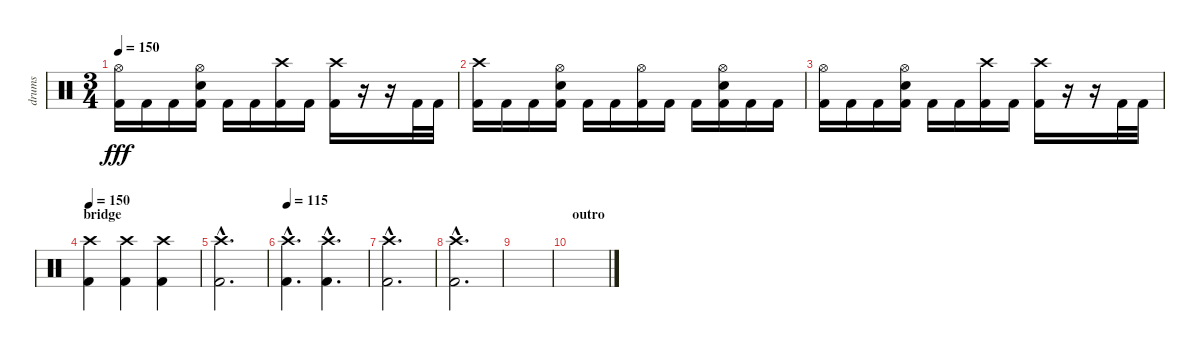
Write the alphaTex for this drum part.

\track ("drums" "drums") {instrument percussion}
\staff {score}
\articulation defaults
\ts (3 4)
\tempo 150
\clef neutral
\ks c
("Hi-Hat (open)" "Kick (hit) 2").16{dy fff} "Kick (hit) 2".16 "Kick (hit) 2".16 ("Hi-Hat (open)" "Snare (hit) 2" "Kick (hit) 2").16 "Kick (hit) 2".16 "Kick (hit) 2".16 ("Crash high (hit)" "Kick (hit) 2").16 "Kick (hit) 2".16 ("Crash high (hit)" "Kick (hit) 2").16 r.16 r.16 "Kick (hit) 2".32 "Kick (hit) 2".32 |
("Crash high (hit)" "Kick (hit) 2").16 "Kick (hit) 2".16 "Kick (hit) 2".16 ("Hi-Hat (open)" "Snare (hit) 2" "Kick (hit) 2").16 "Kick (hit) 2".16 "Kick (hit) 2".16 ("Hi-Hat (open)" "Kick (hit) 2").16 "Kick (hit) 2".16 "Kick (hit) 2".16 ("Hi-Hat (open)" "Snare (hit) 2" "Kick (hit) 2").16 "Kick (hit) 2".16 "Kick (hit) 2".16 |
("Hi-Hat (open)" "Kick (hit) 2").16 "Kick (hit) 2".16 "Kick (hit) 2".16 ("Hi-Hat (open)" "Snare (hit) 2" "Kick (hit) 2").16 "Kick (hit) 2".16 "Kick (hit) 2".16 ("Crash high (hit)" "Kick (hit) 2").16 "Kick (hit) 2".16 ("Crash high (hit)" "Kick (hit) 2").16 r.16 r.16 "Kick (hit) 2".32 "Kick (hit) 2".32 |
\section ("" "bridge")
\tempo 150
("Crash high (hit)" "Kick (hit) 2").4 ("Crash high (hit)" "Kick (hit) 2").4 ("Crash high (hit)" "Kick (hit) 2").4 |
("Crash high (hit)"{hac} "Kick (hit) 2"{hac}).2{d} |
\tempo 115
("Crash high (hit)"{hac} "Kick (hit) 2"{hac}).4{d} ("Crash high (hit)"{hac} "Kick (hit) 2"{hac}).4{d} |
("Crash high (hit)"{hac} "Kick (hit) 2"{hac}).2{d} |
("Crash high (hit)"{hac} "Kick (hit) 2"{hac}).2{d} |
|
\section ("" "outro")
